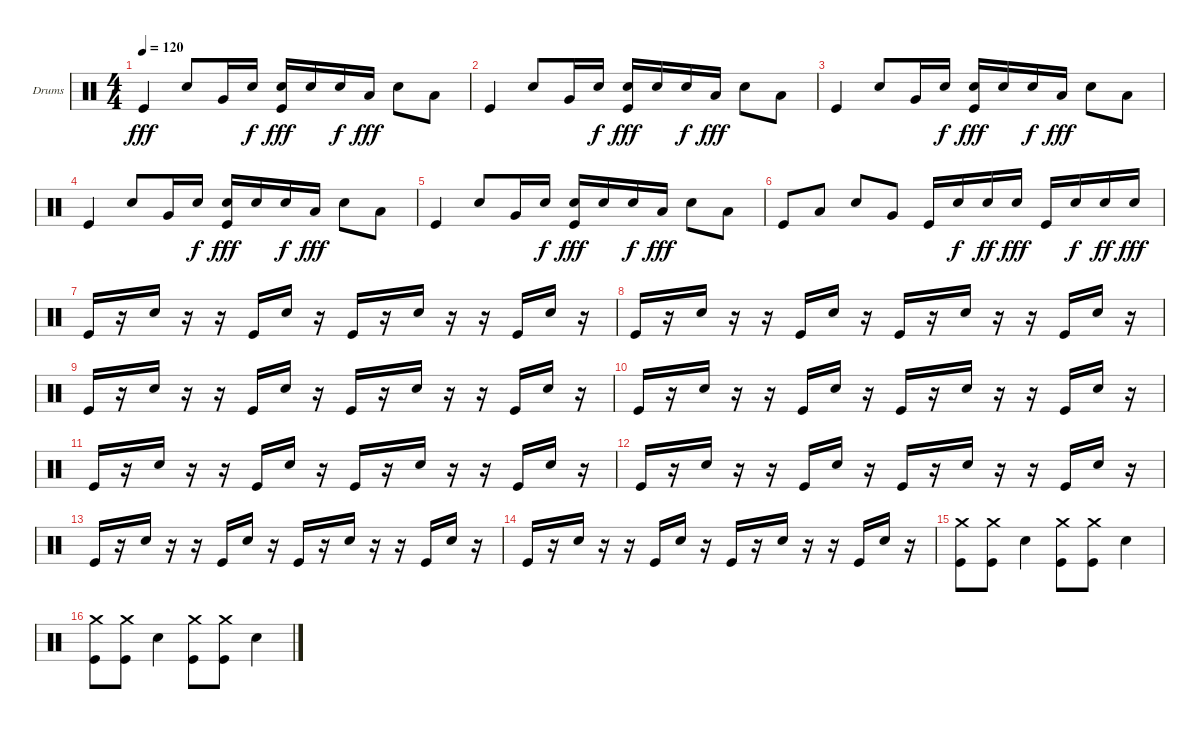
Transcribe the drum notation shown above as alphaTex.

\defaultSystemsLayout 4
\bracketExtendMode groupsimilarinstruments
\firstSystemTrackNameOrientation horizontal
\otherSystemsTrackNameOrientation horizontal
\track ("Пашок" "Drums") {instrument percussion}
\staff {score}
\articulation defaults
\ts (4 4)
\tempo 120
\clef neutral
\ks c "Kick (hit)".4{dy fff} "Snare (hit) 2".8 "Very Low Tom (hit)".16 "Snare (hit) 2".16{dy f}
("Kick (hit)" "Snare (hit) 2").16{dy fff} "Snare (hit) 2".16 "Snare (hit) 2".16{dy f} "Low Tom (hit)".16{dy fff} "Snare (hit) 2".8 "Low Tom (hit)".8 |
"Kick (hit)".4 "Snare (hit) 2".8 "Very Low Tom (hit)".16 "Snare (hit) 2".16{dy f} ("Kick (hit)" "Snare (hit) 2").16{dy fff} "Snare (hit) 2".16 "Snare (hit) 2".16{dy f} "Low Tom (hit)".16{dy fff} "Snare (hit) 2".8 "Low Tom (hit)".8 |
"Kick (hit)".4 "Snare (hit) 2".8 "Very Low Tom (hit)".16 "Snare (hit) 2".16{dy f} ("Kick (hit)" "Snare (hit) 2").16{dy fff} "Snare (hit) 2".16 "Snare (hit) 2".16{dy f} "Low Tom (hit)".16{dy fff} "Snare (hit) 2".8 "Low Tom (hit)".8 |
"Kick (hit)".4 "Snare (hit) 2".8 "Very Low Tom (hit)".16 "Snare (hit) 2".16{dy f} ("Kick (hit)" "Snare (hit) 2").16{dy fff} "Snare (hit) 2".16 "Snare (hit) 2".16{dy f} "Low Tom (hit)".16{dy fff} "Snare (hit) 2".8 "Low Tom (hit)".8 |
"Kick (hit)".4 "Snare (hit) 2".8 "Very Low Tom (hit)".16 "Snare (hit) 2".16{dy f} ("Kick (hit)" "Snare (hit) 2").16{dy fff} "Snare (hit) 2".16 "Snare (hit) 2".16{dy f} "Low Tom (hit)".16{dy fff} "Snare (hit) 2".8 "Low Tom (hit)".8 |
"Kick (hit)".8 "Low Tom (hit)".8 "Snare (hit) 2".8 "Very Low Tom (hit)".8 "Kick (hit)".16 "Snare (hit) 2".16{dy f} "Snare (hit) 2".16{dy ff} "Snare (hit) 2".16{dy fff} "Kick (hit)".16 "Snare (hit) 2".16{dy f} "Snare (hit) 2".16{dy ff} "Snare (hit) 2".16{dy fff} |
"Kick (hit)".16 r.16 "Snare (hit) 2".16 r.16 r.16 "Kick (hit)".16 "Snare (hit) 2".16 r.16 "Kick (hit)".16 r.16 "Snare (hit) 2".16 r.16 r.16 "Kick (hit)".16 "Snare (hit) 2".16 r.16 |
"Kick (hit)".16 r.16 "Snare (hit) 2".16 r.16 r.16 "Kick (hit)".16 "Snare (hit) 2".16 r.16 "Kick (hit)".16 r.16 "Snare (hit) 2".16 r.16 r.16 "Kick (hit)".16 "Snare (hit) 2".16 r.16 |
"Kick (hit)".16 r.16 "Snare (hit) 2".16 r.16 r.16 "Kick (hit)".16 "Snare (hit) 2".16 r.16 "Kick (hit)".16 r.16 "Snare (hit) 2".16 r.16 r.16 "Kick (hit)".16 "Snare (hit) 2".16 r.16 |
"Kick (hit)".16 r.16 "Snare (hit) 2".16 r.16 r.16 "Kick (hit)".16 "Snare (hit) 2".16 r.16 "Kick (hit)".16 r.16 "Snare (hit) 2".16 r.16 r.16 "Kick (hit)".16 "Snare (hit) 2".16 r.16 |
"Kick (hit)".16 r.16 "Snare (hit) 2".16 r.16 r.16 "Kick (hit)".16 "Snare (hit) 2".16 r.16 "Kick (hit)".16 r.16 "Snare (hit) 2".16 r.16 r.16 "Kick (hit)".16 "Snare (hit) 2".16 r.16 |
"Kick (hit)".16 r.16 "Snare (hit) 2".16 r.16 r.16 "Kick (hit)".16 "Snare (hit) 2".16 r.16 "Kick (hit)".16 r.16 "Snare (hit) 2".16 r.16 r.16 "Kick (hit)".16 "Snare (hit) 2".16 r.16 |
"Kick (hit)".16 r.16 "Snare (hit) 2".16 r.16 r.16 "Kick (hit)".16 "Snare (hit) 2".16 r.16 "Kick (hit)".16 r.16 "Snare (hit) 2".16 r.16 r.16 "Kick (hit)".16 "Snare (hit) 2".16 r.16 |
"Kick (hit)".16 r.16 "Snare (hit) 2".16 r.16 r.16 "Kick (hit)".16 "Snare (hit) 2".16 r.16 "Kick (hit)".16 r.16 "Snare (hit) 2".16 r.16 r.16 "Kick (hit)".16 "Snare (hit) 2".16 r.16 |
("Kick (hit)" "Crash medium (hit)").8 ("Kick (hit)" "Crash medium (hit)").8 "Snare (hit) 2".4 ("Kick (hit)" "Crash medium (hit)").8 ("Kick (hit)" "Crash medium (hit)").8 "Snare (hit) 2".4 |
("Kick (hit)" "Crash medium (hit)").8 ("Kick (hit)" "Crash medium (hit)").8 "Snare (hit) 2".4 ("Kick (hit)" "Crash medium (hit)").8 ("Kick (hit)" "Crash medium (hit)").8 "Snare (hit) 2".4
